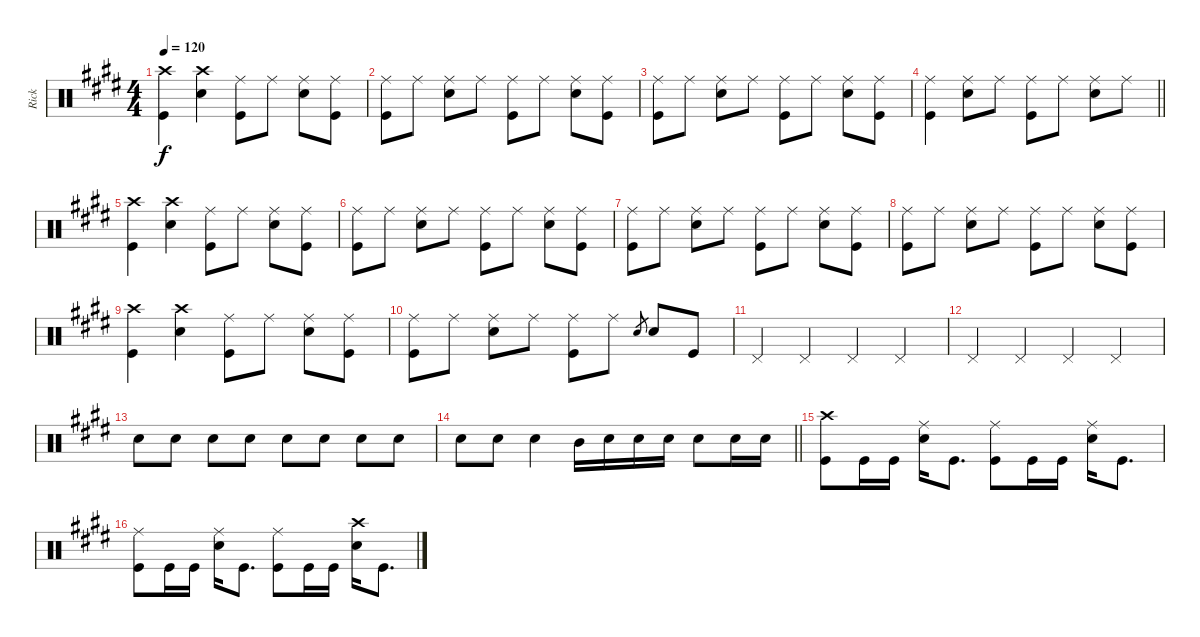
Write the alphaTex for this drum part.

\track ("Rick" "Rick") {instrument percussion}
\staff {score}
\articulation defaults
\ts (4 4)
\tempo 120
\clef neutral
\ks c#minor
("Crash high (hit)" "Kick (hit)").4{dy f} ("Crash high (hit)" "Snare (hit) 2").4 ("Ride (middle)" "Kick (hit)").8 "Ride (middle)".8 ("Ride (middle)" "Snare (hit) 2").8 ("Ride (middle)" "Kick (hit)").8 |
("Ride (middle)" "Kick (hit)").8 "Ride (middle)".8 ("Ride (middle)" "Snare (hit) 2").8 "Ride (middle)".8 ("Ride (middle)" "Kick (hit)").8 "Ride (middle)".8 ("Ride (middle)" "Snare (hit) 2").8 ("Ride (middle)" "Kick (hit)").8 |
("Ride (middle)" "Kick (hit)").8 "Ride (middle)".8 ("Ride (middle)" "Snare (hit) 2").8 "Ride (middle)".8 ("Ride (middle)" "Kick (hit)").8 "Ride (middle)".8 ("Ride (middle)" "Snare (hit) 2").8 ("Ride (middle)" "Kick (hit)").8 |
\barLineRight lightlight
("Ride (middle)" "Kick (hit)").4 ("Ride (middle)" "Snare (hit) 2").8 "Ride (middle)".8 ("Ride (middle)" "Kick (hit)").8 "Ride (middle)".8 ("Ride (middle)" "Snare (hit) 2").8 "Ride (middle)".8 |
("Crash high (hit)" "Kick (hit)").4 ("Crash high (hit)" "Snare (hit) 2").4 ("Ride (middle)" "Kick (hit)").8 "Ride (middle)".8 ("Ride (middle)" "Snare (hit) 2").8 ("Ride (middle)" "Kick (hit)").8 |
("Ride (middle)" "Kick (hit)").8 "Ride (middle)".8 ("Ride (middle)" "Snare (hit) 2").8 "Ride (middle)".8 ("Ride (middle)" "Kick (hit)").8 "Ride (middle)".8 ("Ride (middle)" "Snare (hit) 2").8 ("Ride (middle)" "Kick (hit)").8 |
("Ride (middle)" "Kick (hit)").8 "Ride (middle)".8 ("Ride (middle)" "Snare (hit) 2").8 "Ride (middle)".8 ("Ride (middle)" "Kick (hit)").8 "Ride (middle)".8 ("Ride (middle)" "Snare (hit) 2").8 ("Ride (middle)" "Kick (hit)").8 |
("Ride (middle)" "Kick (hit)").8 "Ride (middle)".8 ("Ride (middle)" "Snare (hit) 2").8 "Ride (middle)".8 ("Ride (middle)" "Kick (hit)").8 "Ride (middle)".8 ("Ride (middle)" "Snare (hit) 2").8 ("Ride (middle)" "Kick (hit)").8 |
("Crash high (hit)" "Kick (hit)").4 ("Crash high (hit)" "Snare (hit) 2").4 ("Ride (middle)" "Kick (hit)").8 "Ride (middle)".8 ("Ride (middle)" "Snare (hit) 2").8 ("Ride (middle)" "Kick (hit)").8 |
("Ride (middle)" "Kick (hit)").8 "Ride (middle)".8 ("Ride (middle)" "Snare (hit) 2").8 "Ride (middle)".8 ("Ride (middle)" "Kick (hit)").8 "Ride (middle)".8 "Snare (hit) 2".8{gr} "Snare (hit) 2".8 "Kick (hit)".8 |
"Pedal Hi-Hat (hit)".4 "Pedal Hi-Hat (hit)".4 "Pedal Hi-Hat (hit)".4 "Pedal Hi-Hat (hit)".4 |
"Pedal Hi-Hat (hit)".4 "Pedal Hi-Hat (hit)".4 "Pedal Hi-Hat (hit)".4 "Pedal Hi-Hat (hit)".4 |
"Snare (hit) 2".8 "Snare (hit) 2".8 "Snare (hit) 2".8 "Snare (hit) 2".8 "Snare (hit) 2".8 "Snare (hit) 2".8 "Snare (hit) 2".8 "Snare (hit) 2".8 |
\barLineRight lightlight "Snare (hit) 2".8 "Snare (hit) 2".8 "Snare (hit) 2".4 "Mid Tom (hit)".16 "Snare (hit) 2".16 "Snare (hit) 2".16 "Snare (hit) 2".16 "Snare (hit) 2".8 "Snare (hit) 2".16 "Snare (hit) 2".16
|
("Crash high (hit)" "Kick (hit)").8 "Kick (hit)".16 "Kick (hit)".16 ("Ride (middle)" "Snare (hit) 2").16 "Kick (hit)".8{d} ("Ride (middle)" "Kick (hit)").8 "Kick (hit)".16 "Kick (hit)".16 ("Ride (middle)" "Snare (hit) 2").16 "Kick (hit)".8{d} |
("Ride (middle)" "Kick (hit)").8 "Kick (hit)".16 "Kick (hit)".16 ("Ride (middle)" "Snare (hit) 2").16 "Kick (hit)".8{d} ("Ride (middle)" "Kick (hit)").8 "Kick (hit)".16 "Kick (hit)".16 ("Crash high (hit)" "Snare (hit) 2").16 "Kick (hit)".8{d}
